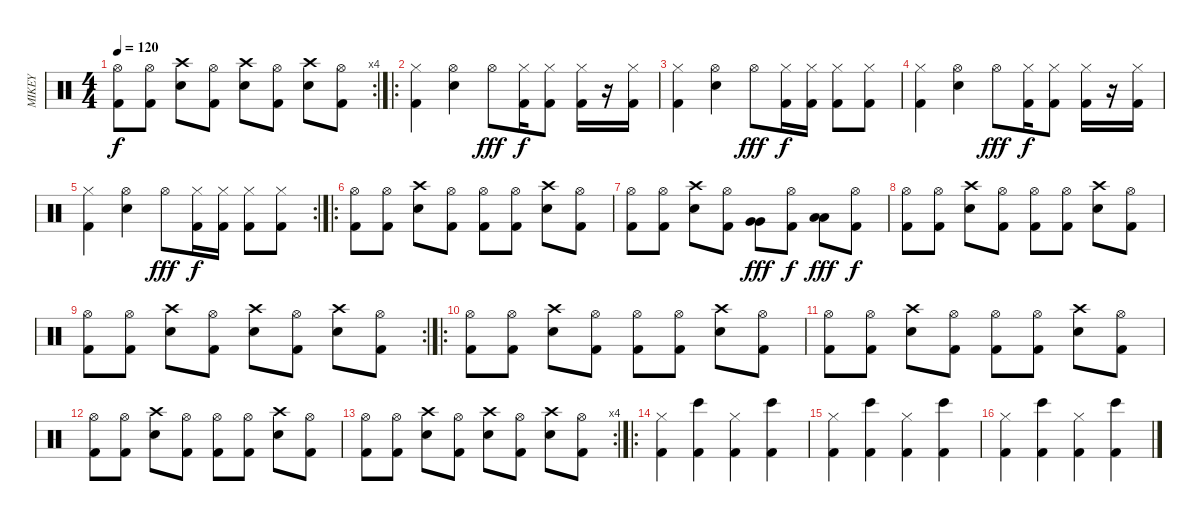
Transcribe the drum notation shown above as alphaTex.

\track ("MIKEY" "MIKEY") {instrument percussion}
\staff {score}
\articulation defaults
\rc 4
\ts (4 4)
\tempo 120
\clef neutral
\ks c
("Hi-Hat (open)" "Kick (hit) 2").8{dy f} ("Hi-Hat (open)" "Kick (hit) 2").8 ("Crash high (hit)" "Snare (hit) 2").8 ("Hi-Hat (open)" "Kick (hit) 2").8 ("Crash high (hit)" "Snare (hit) 2").8 ("Hi-Hat (open)" "Kick (hit) 2").8 ("Crash high (hit)" "Snare (hit) 2").8 ("Hi-Hat (open)" "Kick (hit) 2").8 |
\ro
("Hi-Hat (closed)" "Kick (hit) 2").4 ("Hi-Hat (open)" "Electric Snare (hit)").4 "Hi-Hat (open)"{be (custom 0 1 20 1 40 0 60 0)}.8{dy fff} ("Hi-Hat (closed)" "Kick (hit) 2").16{dy f} ("Hi-Hat (closed)" "Kick (hit) 2").8 ("Hi-Hat (closed)" "Kick (hit) 2").16 r.16 ("Hi-Hat (closed)" "Kick (hit) 2").16 |
("Hi-Hat (closed)" "Kick (hit) 2").4 ("Hi-Hat (open)" "Electric Snare (hit)").4 "Hi-Hat (open)"{be (custom 0 1 20 1 40 0 60 0)}.8{dy fff} ("Hi-Hat (closed)" "Kick (hit) 2").16{dy f} ("Hi-Hat (closed)" "Kick (hit) 2").16 ("Hi-Hat (closed)" "Kick (hit) 2").8 ("Hi-Hat (closed)" "Kick (hit) 2").8 |
("Hi-Hat (closed)" "Kick (hit) 2").4 ("Hi-Hat (open)" "Electric Snare (hit)").4 "Hi-Hat (open)"{be (custom 0 1 20 1 40 0 60 0)}.8{dy fff} ("Hi-Hat (closed)" "Kick (hit) 2").16{dy f} ("Hi-Hat (closed)" "Kick (hit) 2").8 ("Hi-Hat (closed)" "Kick (hit) 2").16 r.16 ("Hi-Hat (closed)" "Kick (hit) 2").16 |
\rc 2
("Hi-Hat (closed)" "Kick (hit) 2").4 ("Hi-Hat (open)" "Electric Snare (hit)").4 "Hi-Hat (open)"{be (custom 0 1 20 1 40 0 60 0)}.8{dy fff} ("Hi-Hat (closed)" "Kick (hit) 2").16{dy f} ("Hi-Hat (closed)" "Kick (hit) 2").16 ("Hi-Hat (closed)" "Kick (hit) 2").8 ("Hi-Hat (closed)" "Kick (hit) 2").8 |
\ro
("Hi-Hat (open)" "Kick (hit) 2").8 ("Hi-Hat (open)" "Kick (hit) 2").8 ("Crash high (hit)" "Snare (hit) 2").8 ("Hi-Hat (open)" "Kick (hit) 2").8 ("Hi-Hat (open)" "Kick (hit) 2").8 ("Hi-Hat (open)" "Kick (hit) 2").8 ("Crash high (hit)" "Snare (hit) 2").8 ("Hi-Hat (open)" "Kick (hit) 2").8 |
("Hi-Hat (open)" "Kick (hit) 2").8 ("Hi-Hat (open)" "Kick (hit) 2").8 ("Crash high (hit)" "Snare (hit) 2").8 ("Hi-Hat (open)" "Kick (hit) 2").8 ("Very Low Tom (hit)" "Very Low Tom (hit)").8{dy fff} ("Hi-Hat (open)" "Kick (hit) 2").8{dy f} ("Low Floor Tom (hit)" "Low Floor Tom (hit)").8{dy fff} ("Hi-Hat (open)" "Kick (hit) 2").8{dy f} |
("Hi-Hat (open)" "Kick (hit) 2").8 ("Hi-Hat (open)" "Kick (hit) 2").8 ("Crash high (hit)" "Snare (hit) 2").8 ("Hi-Hat (open)" "Kick (hit) 2").8 ("Hi-Hat (open)" "Kick (hit) 2").8 ("Hi-Hat (open)" "Kick (hit) 2").8 ("Crash high (hit)" "Snare (hit) 2").8 ("Hi-Hat (open)" "Kick (hit) 2").8 |
\rc 2
("Hi-Hat (open)" "Kick (hit) 2").8 ("Hi-Hat (open)" "Kick (hit) 2").8 ("Crash high (hit)" "Snare (hit) 2").8 ("Hi-Hat (open)" "Kick (hit) 2").8 ("Crash high (hit)" "Snare (hit) 2").8 ("Hi-Hat (open)" "Kick (hit) 2").8 ("Crash high (hit)" "Snare (hit) 2").8 ("Hi-Hat (open)" "Kick (hit) 2").8 |
\ro
("Hi-Hat (open)" "Kick (hit) 2").8 ("Hi-Hat (open)" "Kick (hit) 2").8 ("Crash high (hit)" "Snare (hit) 2").8 ("Hi-Hat (open)" "Kick (hit) 2").8 ("Hi-Hat (open)" "Kick (hit) 2").8 ("Hi-Hat (open)" "Kick (hit) 2").8 ("Crash high (hit)" "Snare (hit) 2").8 ("Hi-Hat (open)" "Kick (hit) 2").8 |
("Hi-Hat (open)" "Kick (hit) 2").8 ("Hi-Hat (open)" "Kick (hit) 2").8 ("Crash high (hit)" "Snare (hit) 2").8 ("Hi-Hat (open)" "Kick (hit) 2").8 ("Hi-Hat (open)" "Kick (hit) 2").8 ("Hi-Hat (open)" "Kick (hit) 2").8 ("Crash high (hit)" "Snare (hit) 2").8 ("Hi-Hat (open)" "Kick (hit) 2").8 |
("Hi-Hat (open)" "Kick (hit) 2").8 ("Hi-Hat (open)" "Kick (hit) 2").8 ("Crash high (hit)" "Snare (hit) 2").8 ("Hi-Hat (open)" "Kick (hit) 2").8 ("Hi-Hat (open)" "Kick (hit) 2").8 ("Hi-Hat (open)" "Kick (hit) 2").8 ("Crash high (hit)" "Snare (hit) 2").8 ("Hi-Hat (open)" "Kick (hit) 2").8 |
\rc 4
("Hi-Hat (open)" "Kick (hit) 2").8 ("Hi-Hat (open)" "Kick (hit) 2").8 ("Crash high (hit)" "Snare (hit) 2").8 ("Hi-Hat (open)" "Kick (hit) 2").8 ("Crash high (hit)" "Snare (hit) 2").8 ("Hi-Hat (open)" "Kick (hit) 2").8 ("Crash high (hit)" "Snare (hit) 2").8 ("Hi-Hat (open)" "Kick (hit) 2").8 |
\ro
("Hi-Hat (closed)" "Kick (hit) 2").4 ("Bongo High (hit)" "Kick (hit) 2").4 ("Hi-Hat (closed)" "Kick (hit) 2").4 ("Bongo High (hit)" "Kick (hit) 2").4 |
("Hi-Hat (closed)" "Kick (hit) 2").4 ("Bongo High (hit)" "Kick (hit) 2").4 ("Hi-Hat (closed)" "Kick (hit) 2").4 ("Bongo High (hit)" "Kick (hit) 2").4 |
("Hi-Hat (closed)" "Kick (hit) 2").4 ("Bongo High (hit)" "Kick (hit) 2").4 ("Hi-Hat (closed)" "Kick (hit) 2").4 ("Bongo High (hit)" "Kick (hit) 2").4
